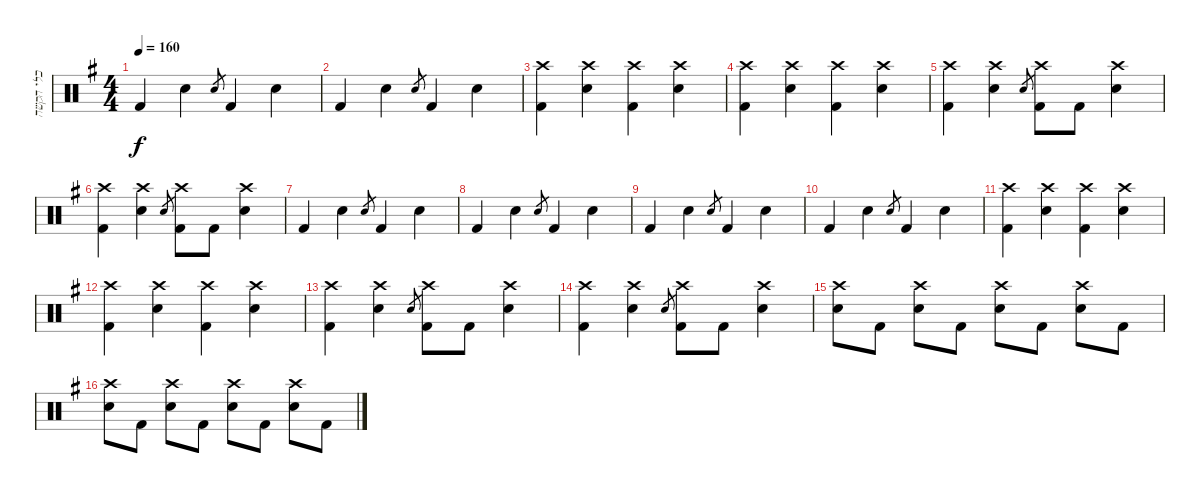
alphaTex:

\track ("כלי הקשה" "כלי הקשה") {instrument percussion bank 127}
\staff {score}
\articulation defaults
\ts (4 4)
\tempo 160
\clef neutral
\ks eminor "Kick (hit) 2".4{dy f} "Electric Snare (hit)".4 "Electric Snare (hit)".8{gr} "Kick (hit) 2".4 "Electric Snare (hit)".4
|
"Kick (hit) 2".4 "Electric Snare (hit)".4 "Electric Snare (hit)".8{gr} "Kick (hit) 2".4 "Electric Snare (hit)".4 |
("Crash high (hit)" "Kick (hit) 2").4 ("Crash high (hit)" "Electric Snare (hit)").4 ("Crash high (hit)" "Kick (hit) 2").4 ("Crash high (hit)" "Electric Snare (hit)").4 |
("Crash high (hit)" "Kick (hit) 2").4 ("Crash high (hit)" "Electric Snare (hit)").4 ("Crash high (hit)" "Kick (hit) 2").4 ("Crash high (hit)" "Electric Snare (hit)").4 |
("Crash high (hit)" "Kick (hit) 2").4 ("Crash high (hit)" "Electric Snare (hit)").4 "Electric Snare (hit)".8{gr} ("Crash high (hit)" "Kick (hit) 2").8 "Kick (hit) 2".8 ("Crash high (hit)" "Electric Snare (hit)").4 |
("Crash high (hit)" "Kick (hit) 2").4 ("Crash high (hit)" "Electric Snare (hit)").4 "Electric Snare (hit)".8{gr} ("Crash high (hit)" "Kick (hit) 2").8 "Kick (hit) 2".8 ("Crash high (hit)" "Electric Snare (hit)").4 |
"Kick (hit) 2".4 "Electric Snare (hit)".4 "Electric Snare (hit)".8{gr} "Kick (hit) 2".4 "Electric Snare (hit)".4 |
"Kick (hit) 2".4 "Electric Snare (hit)".4 "Electric Snare (hit)".8{gr} "Kick (hit) 2".4 "Electric Snare (hit)".4 |
"Kick (hit) 2".4 "Electric Snare (hit)".4 "Electric Snare (hit)".8{gr} "Kick (hit) 2".4 "Electric Snare (hit)".4 |
"Kick (hit) 2".4 "Electric Snare (hit)".4 "Electric Snare (hit)".8{gr} "Kick (hit) 2".4 "Electric Snare (hit)".4 |
("Crash high (hit)" "Kick (hit) 2").4 ("Crash high (hit)" "Electric Snare (hit)").4 ("Crash high (hit)" "Kick (hit) 2").4 ("Crash high (hit)" "Electric Snare (hit)").4 |
("Crash high (hit)" "Kick (hit) 2").4 ("Crash high (hit)" "Electric Snare (hit)").4 ("Crash high (hit)" "Kick (hit) 2").4 ("Crash high (hit)" "Electric Snare (hit)").4 |
("Crash high (hit)" "Kick (hit) 2").4 ("Crash high (hit)" "Electric Snare (hit)").4 "Electric Snare (hit)".8{gr} ("Crash high (hit)" "Kick (hit) 2").8 "Kick (hit) 2".8 ("Crash high (hit)" "Electric Snare (hit)").4 |
("Crash high (hit)" "Kick (hit) 2").4 ("Crash high (hit)" "Electric Snare (hit)").4 "Electric Snare (hit)".8{gr} ("Crash high (hit)" "Kick (hit) 2").8 "Kick (hit) 2".8 ("Crash high (hit)" "Electric Snare (hit)").4 |
("Crash high (hit)" "Electric Snare (hit)").8 "Kick (hit) 2".8 ("Crash high (hit)" "Electric Snare (hit)").8 "Kick (hit) 2".8 ("Crash high (hit)" "Electric Snare (hit)").8 "Kick (hit) 2".8 ("Crash high (hit)" "Electric Snare (hit)").8 "Kick (hit) 2".8 |
("Crash high (hit)" "Electric Snare (hit)").8 "Kick (hit) 2".8 ("Crash high (hit)" "Electric Snare (hit)").8 "Kick (hit) 2".8 ("Crash high (hit)" "Electric Snare (hit)").8 "Kick (hit) 2".8 ("Crash high (hit)" "Electric Snare (hit)").8 "Kick (hit) 2".8
